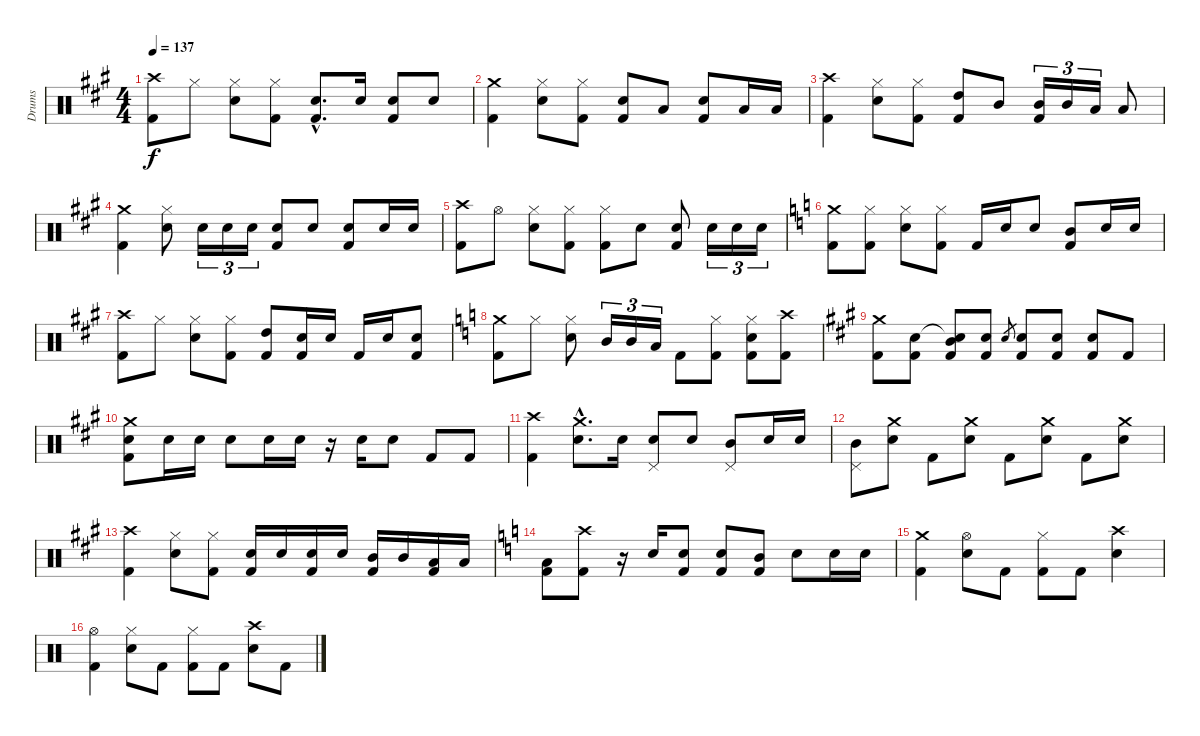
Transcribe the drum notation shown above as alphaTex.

\track ("Drums" "Drums") {instrument percussion}
\staff {score}
\articulation defaults
\ts (4 4)
\tempo 137
\clef neutral
\ks a
("Crash high (hit)" "Kick (hit) 2").8{dy f} "Hi-Hat (closed)".8 ("Hi-Hat (closed)" "Snare (hit) 2").8 ("Hi-Hat (closed)" "Kick (hit) 2").8 ("Snare (hit) 2"{hac} "Kick (hit) 2"{hac}).8{d} "Snare (hit) 2".16 ("Snare (hit) 2" "Kick (hit) 2").8 "Snare (hit) 2".8 |
("Crash medium (hit)" "Kick (hit) 2").4 ("Hi-Hat (closed)" "Snare (hit) 2").8 ("Hi-Hat (closed)" "Kick (hit) 2").8 ("Snare (hit) 2" "Kick (hit) 2").8 "Low Tom (hit)".8 ("Snare (hit) 2" "Kick (hit) 2").8 "Low Tom (hit)".16 "Low Tom (hit)".16 |
("Crash high (hit)" "Kick (hit) 2").4 ("Hi-Hat (closed)" "Snare (hit) 2").8 ("Hi-Hat (closed)" "Kick (hit) 2").8 ("High Tom (hit)" "Kick (hit) 2").8 "Mid Tom (hit)".8 ("Mid Tom (hit)" "Kick (hit) 2").16{tu (3 2)} "Mid Tom (hit)".16{tu (3 2)} "Low Tom (hit)".16{tu (3 2)} "Low Tom (hit)".8 |
("Crash medium (hit)" "Kick (hit) 2").4 ("Hi-Hat (closed)" "Snare (hit) 2").8 "Snare (hit) 2".16{tu (3 2)} "Snare (hit) 2".16{tu (3 2)} "Snare (hit) 2".16{tu (3 2)} ("Snare (hit) 2" "Kick (hit) 2").8 "Snare (hit) 2".8 ("Snare (hit) 2" "Kick (hit) 2").8 "Snare (hit) 2".16 "Snare (hit) 2".16 |
("Crash high (hit)" "Kick (hit) 2").8 "Hi-Hat (open)".8 ("Hi-Hat (closed)" "Snare (hit) 2").8 ("Hi-Hat (closed)" "Kick (hit) 2").8 ("Hi-Hat (closed)" "Kick (hit) 2").8 "Snare (hit) 2".8 ("Snare (hit) 2" "Kick (hit) 2").8 "Snare (hit) 2".16{tu (3 2)} "Snare (hit) 2".16{tu (3 2)} "Snare (hit) 2".16{tu (3 2)} |
\ks c
("Crash medium (hit)" "Kick (hit) 2").8 ("Hi-Hat (closed)" "Kick (hit) 2").8 ("Hi-Hat (closed)" "Snare (hit) 2").8 ("Hi-Hat (closed)" "Kick (hit) 2").8 "Kick (hit) 2".16 "Snare (hit) 2".16 "Snare (hit) 2".8 ("Mid Tom (hit)" "Kick (hit) 2").8 "Snare (hit) 2".16 "Snare (hit) 2".16 |
\ks a
("Crash high (hit)" "Kick (hit) 2").8 "Hi-Hat (closed)".8 ("Hi-Hat (closed)" "Snare (hit) 2").8 ("Hi-Hat (closed)" "Kick (hit) 2").8 ("High Tom (hit)" "Kick (hit) 2").8 ("Snare (hit) 2" "Kick (hit) 2").16 "Snare (hit) 2".16 "Kick (hit) 2".16 "Snare (hit) 2".16 ("Snare (hit) 2" "Kick (hit) 2").8 |
\ks c
("Crash medium (hit)" "Kick (hit) 2").8 "Hi-Hat (closed)".8 ("Hi-Hat (closed)" "Snare (hit) 2").8 "Mid Tom (hit)".16{tu (3 2)} "Mid Tom (hit)".16{tu (3 2)} "Low Tom (hit)".16{tu (3 2)} "Kick (hit) 2".8 ("Hi-Hat (closed)" "Kick (hit) 2").8 ("Hi-Hat (closed)" "Snare (hit) 2" "Kick (hit) 2").8 ("Crash high (hit)" "Kick (hit) 2").8 |
\ks a
("Crash medium (hit)" "Kick (hit) 2").8 ("Snare (hit) 2" "Kick (hit) 2").8 ("Snare (hit)"{t} "Mid Tom (hit)" "Kick (hit) 2").8 ("Snare (hit) 2" "Kick (hit) 2").8 "Snare (hit) 2".8{gr} ("Snare (hit) 2" "Kick (hit) 2").8 ("Snare (hit) 2" "Kick (hit) 2").8 ("Snare (hit) 2" "Kick (hit) 2").8 "Kick (hit) 2".8 |
("Crash medium (hit)" "Snare (hit) 2" "Kick (hit) 2").8 "Snare (hit) 2".16 "Snare (hit) 2".16 "Snare (hit) 2".8 "Snare (hit) 2".16 "Snare (hit) 2".16 r.16 "Snare (hit) 2".16 "Snare (hit) 2".8 "Kick (hit) 2".8 "Kick (hit) 2".8 |
("Crash high (hit)" "Kick (hit) 2").4 ("Crash medium (hit)"{hac} "Snare (hit) 2"{hac}).8{d} "Snare (hit) 2".16 ("Snare (hit) 2" "Pedal Hi-Hat (hit)").8 "Snare (hit) 2".8 ("Mid Tom (hit)" "Pedal Hi-Hat (hit)").8 "Snare (hit) 2".16 "Snare (hit) 2".16 |
("Mid Tom (hit)" "Pedal Hi-Hat (hit)").8 ("Crash medium (hit)" "Snare (hit) 2").8 "Kick (hit) 2".8 ("Crash medium (hit)" "Snare (hit) 2").8 "Kick (hit) 2".8 ("Crash medium (hit)" "Snare (hit) 2").8 "Kick (hit) 2".8 ("Crash medium (hit)" "Snare (hit) 2").8 |
("Crash high (hit)" "Kick (hit) 2").4 ("Hi-Hat (closed)" "Snare (hit) 2").8 ("Hi-Hat (closed)" "Kick (hit) 2").8 ("Snare (hit) 2" "Kick (hit) 2").16 "Snare (hit) 2".16 ("Snare (hit) 2" "Kick (hit) 2").16 "Snare (hit) 2".16 ("Mid Tom (hit)" "Kick (hit) 2").16 "Mid Tom (hit)".16 ("Low Tom (hit)" "Kick (hit) 2").16 "Low Tom (hit)".16 |
\ks c
("Low Tom (hit)" "Kick (hit) 2").8 ("Crash high (hit)" "Kick (hit) 2").8 r.16 "Snare (hit) 2".16 ("Snare (hit) 2" "Kick (hit) 2").8 ("Snare (hit) 2" "Kick (hit) 2").8 ("Mid Tom (hit)" "Kick (hit) 2").8 "Snare (hit) 2".8 "Snare (hit) 2".16 "Snare (hit) 2".16 |
("Crash medium (hit)" "Kick (hit) 2").4 ("Hi-Hat (open)" "Snare (hit) 2").8 "Kick (hit) 2".8 ("Hi-Hat (closed)" "Kick (hit) 2").8 "Kick (hit) 2".8 ("Crash high (hit)" "Snare (hit) 2").4 |
("Hi-Hat (open)" "Kick (hit) 2").4 ("Hi-Hat (closed)" "Snare (hit) 2").8 "Kick (hit) 2".8 ("Hi-Hat (closed)" "Kick (hit) 2").8 "Kick (hit) 2".8 ("Crash high (hit)" "Snare (hit) 2").8 "Kick (hit) 2".8
